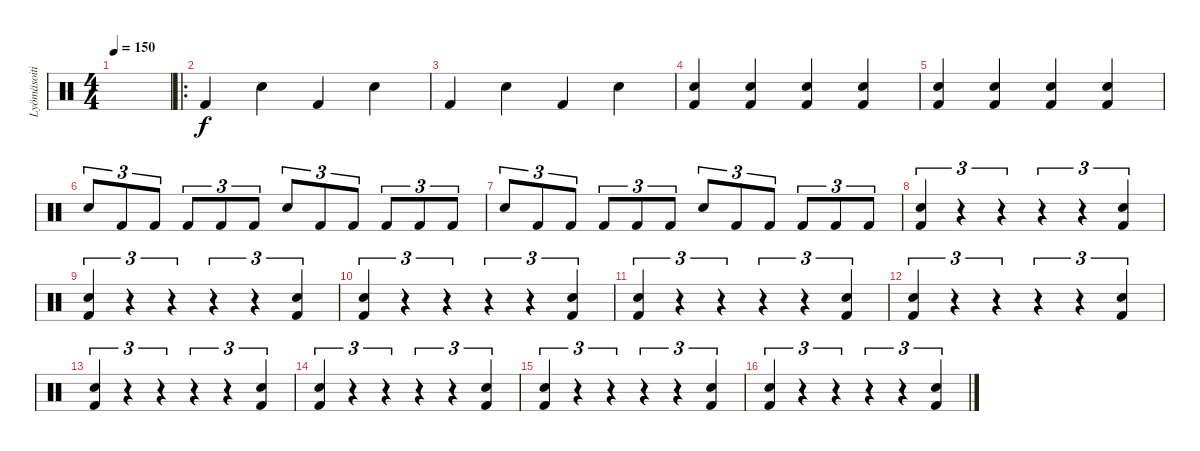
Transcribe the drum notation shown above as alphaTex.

\track ("Lyömäsoitin" "Lyömäsoiti") {instrument percussion}
\staff {score}
\articulation defaults
\ts (4 4)
\tempo 150
\clef neutral
\ks c
|
\ro "Kick (hit) 2".4 "Snare (hit) 2".4 "Kick (hit) 2".4 "Snare (hit) 2".4
|
"Kick (hit) 2".4 "Snare (hit) 2".4 "Kick (hit) 2".4 "Snare (hit) 2".4 |
("Snare (hit) 2" "Kick (hit) 2").4 ("Snare (hit) 2" "Kick (hit) 2").4 ("Snare (hit) 2" "Kick (hit) 2").4 ("Snare (hit) 2" "Kick (hit) 2").4 |
("Snare (hit) 2" "Kick (hit) 2").4 ("Snare (hit) 2" "Kick (hit) 2").4 ("Snare (hit) 2" "Kick (hit) 2").4 ("Snare (hit) 2" "Kick (hit) 2").4 |
"Snare (hit) 2".8{tu (3 2)} "Kick (hit) 2".8{tu (3 2)} "Kick (hit) 2".8{tu (3 2)} "Kick (hit) 2".8{tu (3 2)} "Kick (hit) 2".8{tu (3 2)} "Kick (hit) 2".8{tu (3 2)} "Snare (hit) 2".8{tu (3 2)} "Kick (hit) 2".8{tu (3 2)} "Kick (hit) 2".8{tu (3 2)} "Kick (hit) 2".8{tu (3 2)} "Kick (hit) 2".8{tu (3 2)} "Kick (hit) 2".8{tu (3 2)} |
"Snare (hit) 2".8{tu (3 2)} "Kick (hit) 2".8{tu (3 2)} "Kick (hit) 2".8{tu (3 2)} "Kick (hit) 2".8{tu (3 2)} "Kick (hit) 2".8{tu (3 2)} "Kick (hit) 2".8{tu (3 2)} "Snare (hit) 2".8{tu (3 2)} "Kick (hit) 2".8{tu (3 2)} "Kick (hit) 2".8{tu (3 2)} "Kick (hit) 2".8{tu (3 2)} "Kick (hit) 2".8{tu (3 2)} "Kick (hit) 2".8{tu (3 2)} |
("Snare (hit) 2" "Kick (hit) 2").4{tu (3 2)} r.4{tu (3 2)} r.4{tu (3 2)} r.4{tu (3 2)} r.4{tu (3 2)} ("Snare (hit) 2" "Kick (hit) 2").4{tu (3 2)} |
("Snare (hit) 2" "Kick (hit) 2").4{tu (3 2)} r.4{tu (3 2)} r.4{tu (3 2)} r.4{tu (3 2)} r.4{tu (3 2)} ("Snare (hit) 2" "Kick (hit) 2").4{tu (3 2)} |
("Snare (hit) 2" "Kick (hit) 2").4{tu (3 2)} r.4{tu (3 2)} r.4{tu (3 2)} r.4{tu (3 2)} r.4{tu (3 2)} ("Snare (hit) 2" "Kick (hit) 2").4{tu (3 2)} |
("Snare (hit) 2" "Kick (hit) 2").4{tu (3 2)} r.4{tu (3 2)} r.4{tu (3 2)} r.4{tu (3 2)} r.4{tu (3 2)} ("Snare (hit) 2" "Kick (hit) 2").4{tu (3 2)} |
("Snare (hit) 2" "Kick (hit) 2").4{tu (3 2)} r.4{tu (3 2)} r.4{tu (3 2)} r.4{tu (3 2)} r.4{tu (3 2)} ("Snare (hit) 2" "Kick (hit) 2").4{tu (3 2)} |
("Snare (hit) 2" "Kick (hit) 2").4{tu (3 2)} r.4{tu (3 2)} r.4{tu (3 2)} r.4{tu (3 2)} r.4{tu (3 2)} ("Snare (hit) 2" "Kick (hit) 2").4{tu (3 2)} |
("Snare (hit) 2" "Kick (hit) 2").4{tu (3 2)} r.4{tu (3 2)} r.4{tu (3 2)} r.4{tu (3 2)} r.4{tu (3 2)} ("Snare (hit) 2" "Kick (hit) 2").4{tu (3 2)} |
("Snare (hit) 2" "Kick (hit) 2").4{tu (3 2)} r.4{tu (3 2)} r.4{tu (3 2)} r.4{tu (3 2)} r.4{tu (3 2)} ("Snare (hit) 2" "Kick (hit) 2").4{tu (3 2)} |
("Snare (hit) 2" "Kick (hit) 2").4{tu (3 2)} r.4{tu (3 2)} r.4{tu (3 2)} r.4{tu (3 2)} r.4{tu (3 2)} ("Snare (hit) 2" "Kick (hit) 2").4{tu (3 2)}
